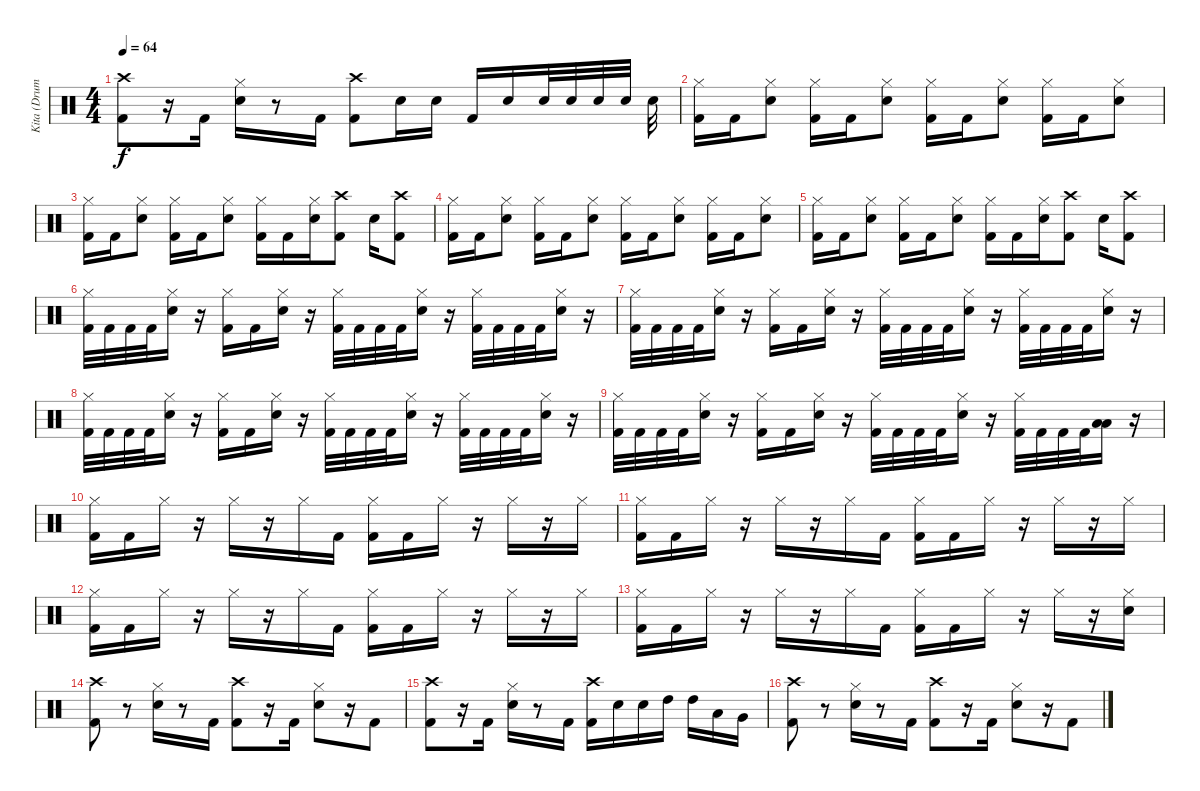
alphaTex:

\track ("Kita (Drums)" "Kita (Drum") {instrument percussion}
\staff {score}
\articulation defaults
\ts (4 4)
\tempo 64
\clef neutral
\ks c
("Kick (hit) 2" "Crash high (hit)").8{dy f} r.16 "Kick (hit) 2".16 ("Electric Snare (hit)" "Hi-Hat (closed)").16 r.8 "Kick (hit) 2".16 ("Kick (hit) 2" "Crash high (hit)").8 "Electric Snare (hit)".16 "Electric Snare (hit)".16 "Kick (hit) 2".16 "Electric Snare (hit)".16 "Electric Snare (hit)".32 "Electric Snare (hit)".32 "Electric Snare (hit)".32 "Electric Snare (hit)".32 "Electric Snare (hit)".32 |
("Kick (hit) 2" "Hi-Hat (closed)").16 "Kick (hit) 2".16 ("Electric Snare (hit)" "Hi-Hat (closed)").8 ("Kick (hit) 2" "Hi-Hat (closed)").16 "Kick (hit) 2".16 ("Electric Snare (hit)" "Hi-Hat (closed)").8 ("Kick (hit) 2" "Hi-Hat (closed)").16 "Kick (hit) 2".16 ("Electric Snare (hit)" "Hi-Hat (closed)").8 ("Kick (hit) 2" "Hi-Hat (closed)").16 "Kick (hit) 2".16 ("Electric Snare (hit)" "Hi-Hat (closed)").8 |
("Kick (hit) 2" "Hi-Hat (closed)").16 "Kick (hit) 2".16 ("Electric Snare (hit)" "Hi-Hat (closed)").8 ("Kick (hit) 2" "Hi-Hat (closed)").16 "Kick (hit) 2".16 ("Electric Snare (hit)" "Hi-Hat (closed)").8 ("Kick (hit) 2" "Hi-Hat (closed)").16 "Kick (hit) 2".16 ("Electric Snare (hit)" "Hi-Hat (closed)").16 ("Kick (hit) 2" "Crash high (hit)").8 "Electric Snare (hit)".16 ("Kick (hit) 2" "Crash high (hit)").8 |
("Kick (hit) 2" "Hi-Hat (closed)").16 "Kick (hit) 2".16 ("Electric Snare (hit)" "Hi-Hat (closed)").8 ("Kick (hit) 2" "Hi-Hat (closed)").16 "Kick (hit) 2".16 ("Electric Snare (hit)" "Hi-Hat (closed)").8 ("Kick (hit) 2" "Hi-Hat (closed)").16 "Kick (hit) 2".16 ("Electric Snare (hit)" "Hi-Hat (closed)").8 ("Kick (hit) 2" "Hi-Hat (closed)").16 "Kick (hit) 2".16 ("Electric Snare (hit)" "Hi-Hat (closed)").8 |
("Kick (hit) 2" "Hi-Hat (closed)").16 "Kick (hit) 2".16 ("Electric Snare (hit)" "Hi-Hat (closed)").8 ("Kick (hit) 2" "Hi-Hat (closed)").16 "Kick (hit) 2".16 ("Electric Snare (hit)" "Hi-Hat (closed)").8 ("Kick (hit) 2" "Hi-Hat (closed)").16 "Kick (hit) 2".16 ("Electric Snare (hit)" "Hi-Hat (closed)").16 ("Kick (hit) 2" "Crash high (hit)").8 "Electric Snare (hit)".16 ("Kick (hit) 2" "Crash high (hit)").8 |
("Kick (hit) 2" "Hi-Hat (closed)").32 "Kick (hit) 2".32 "Kick (hit) 2".32 "Kick (hit) 2".32 ("Electric Snare (hit)" "Hi-Hat (closed)").16 r.16 ("Kick (hit) 2" "Hi-Hat (closed)").16 "Kick (hit) 2".16 ("Electric Snare (hit)" "Hi-Hat (closed)").16 r.16 ("Kick (hit) 2" "Hi-Hat (closed)").32 "Kick (hit) 2".32 "Kick (hit) 2".32 "Kick (hit) 2".32 ("Electric Snare (hit)" "Hi-Hat (closed)").16 r.16 ("Kick (hit) 2" "Hi-Hat (closed)").32 "Kick (hit) 2".32 "Kick (hit) 2".32 "Kick (hit) 2".32 ("Electric Snare (hit)" "Hi-Hat (closed)").16 r.16 |
("Kick (hit) 2" "Hi-Hat (closed)").32 "Kick (hit) 2".32 "Kick (hit) 2".32 "Kick (hit) 2".32 ("Electric Snare (hit)" "Hi-Hat (closed)").16 r.16 ("Kick (hit) 2" "Hi-Hat (closed)").16 "Kick (hit) 2".16 ("Electric Snare (hit)" "Hi-Hat (closed)").16 r.16 ("Kick (hit) 2" "Hi-Hat (closed)").32 "Kick (hit) 2".32 "Kick (hit) 2".32 "Kick (hit) 2".32 ("Electric Snare (hit)" "Hi-Hat (closed)").16 r.16 ("Kick (hit) 2" "Hi-Hat (closed)").32 "Kick (hit) 2".32 "Kick (hit) 2".32 "Kick (hit) 2".32 ("Electric Snare (hit)" "Hi-Hat (closed)").16 r.16 |
("Kick (hit) 2" "Hi-Hat (closed)").32 "Kick (hit) 2".32 "Kick (hit) 2".32 "Kick (hit) 2".32 ("Electric Snare (hit)" "Hi-Hat (closed)").16 r.16 ("Kick (hit) 2" "Hi-Hat (closed)").16 "Kick (hit) 2".16 ("Electric Snare (hit)" "Hi-Hat (closed)").16 r.16 ("Kick (hit) 2" "Hi-Hat (closed)").32 "Kick (hit) 2".32 "Kick (hit) 2".32 "Kick (hit) 2".32 ("Electric Snare (hit)" "Hi-Hat (closed)").16 r.16 ("Kick (hit) 2" "Hi-Hat (closed)").32 "Kick (hit) 2".32 "Kick (hit) 2".32 "Kick (hit) 2".32 ("Electric Snare (hit)" "Hi-Hat (closed)").16 r.16 |
("Kick (hit) 2" "Hi-Hat (closed)").32 "Kick (hit) 2".32 "Kick (hit) 2".32 "Kick (hit) 2".32 ("Electric Snare (hit)" "Hi-Hat (closed)").16 r.16 ("Kick (hit) 2" "Hi-Hat (closed)").16 "Kick (hit) 2".16 ("Electric Snare (hit)" "Hi-Hat (closed)").16 r.16 ("Kick (hit) 2" "Hi-Hat (closed)").32 "Kick (hit) 2".32 "Kick (hit) 2".32 "Kick (hit) 2".32 ("Electric Snare (hit)" "Hi-Hat (closed)").16 r.16 ("Kick (hit) 2" "Hi-Hat (closed)").32 "Kick (hit) 2".32 "Kick (hit) 2".32 "Kick (hit) 2".32 ("Low Floor Tom (hit)" "Low Floor Tom (hit)").16 r.16 |
("Kick (hit) 2" "Hi-Hat (closed)").16 "Kick (hit) 2".16 "Hi-Hat (closed)".16 r.16 "Hi-Hat (closed)".16 r.16 "Hi-Hat (closed)".16 "Kick (hit) 2".16 ("Kick (hit) 2" "Hi-Hat (closed)").16 "Kick (hit) 2".16 "Hi-Hat (closed)".16 r.16 "Hi-Hat (closed)".16 r.16 "Hi-Hat (closed)".16 |
("Kick (hit) 2" "Hi-Hat (closed)").16 "Kick (hit) 2".16 "Hi-Hat (closed)".16 r.16 "Hi-Hat (closed)".16 r.16 "Hi-Hat (closed)".16 "Kick (hit) 2".16 ("Kick (hit) 2" "Hi-Hat (closed)").16 "Kick (hit) 2".16 "Hi-Hat (closed)".16 r.16 "Hi-Hat (closed)".16 r.16 "Hi-Hat (closed)".16 |
("Kick (hit) 2" "Hi-Hat (closed)").16 "Kick (hit) 2".16 "Hi-Hat (closed)".16 r.16 "Hi-Hat (closed)".16 r.16 "Hi-Hat (closed)".16 "Kick (hit) 2".16 ("Kick (hit) 2" "Hi-Hat (closed)").16 "Kick (hit) 2".16 "Hi-Hat (closed)".16 r.16 "Hi-Hat (closed)".16 r.16 "Hi-Hat (closed)".16 |
("Kick (hit) 2" "Hi-Hat (closed)").16 "Kick (hit) 2".16 "Hi-Hat (closed)".16 r.16 "Hi-Hat (closed)".16 r.16 "Hi-Hat (closed)".16 "Kick (hit) 2".16 ("Kick (hit) 2" "Hi-Hat (closed)").16 "Kick (hit) 2".16 "Hi-Hat (closed)".16 r.16 "Hi-Hat (closed)".16 r.16 ("Electric Snare (hit)" "Hi-Hat (closed)").16 |
("Kick (hit) 2" "Crash high (hit)").8 r.8 ("Electric Snare (hit)" "Hi-Hat (closed)").16 r.8 "Kick (hit) 2".16 ("Kick (hit) 2" "Crash high (hit)").8 r.16 "Kick (hit) 2".16 ("Electric Snare (hit)" "Hi-Hat (closed)").8 r.16 "Kick (hit) 2".8 |
("Kick (hit) 2" "Crash high (hit)").8 r.16 "Kick (hit) 2".16 ("Electric Snare (hit)" "Hi-Hat (closed)").16 r.8 "Kick (hit) 2".16 ("Kick (hit) 2" "Crash high (hit)").16 "Electric Snare (hit)".16 "Electric Snare (hit)".16 "High Tom (hit)".16 "High Tom (hit)".16 "Low Tom (hit)".16 "Very Low Tom (hit)".16 |
("Kick (hit) 2" "Crash high (hit)").8 r.8 ("Electric Snare (hit)" "Hi-Hat (closed)").16 r.8 "Kick (hit) 2".16 ("Kick (hit) 2" "Crash high (hit)").8 r.16 "Kick (hit) 2".16 ("Electric Snare (hit)" "Hi-Hat (closed)").8 r.16 "Kick (hit) 2".8
